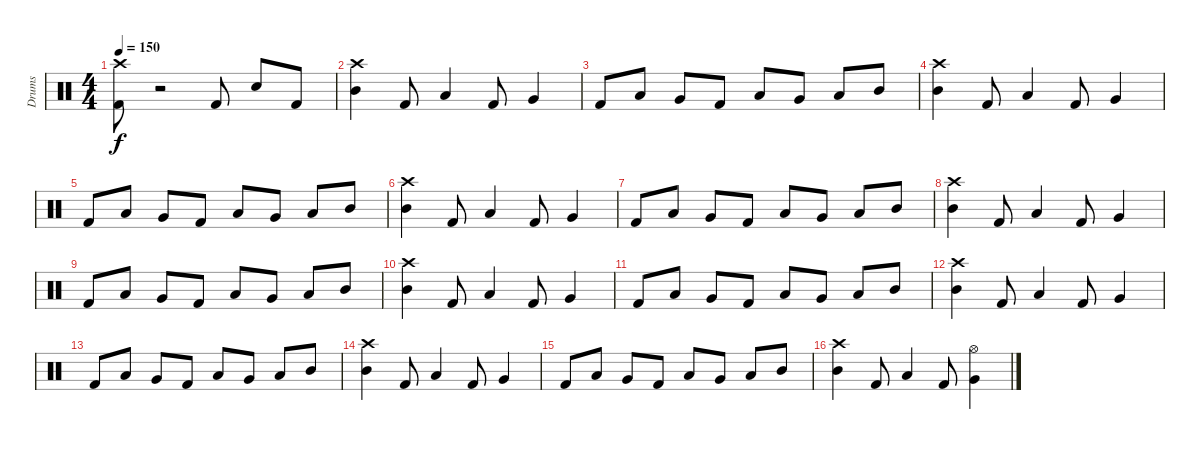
\track ("Drums" "Drums") {instrument percussion}
\staff {score}
\articulation defaults
\ts (4 4)
\tempo 150
\clef neutral
\ks c
("Crash high (hit)" "Kick (hit) 2").8{dy f} r.2 "Kick (hit) 2".8 "Electric Snare (hit)".8 "Kick (hit) 2".8 |
("Crash high (hit)" "Mid Tom (hit)").4 "Kick (hit) 2".8 "Low Tom (hit)".4 "Kick (hit) 2".8 "Very Low Tom (hit)".4 |
"Kick (hit) 2".8 "Low Tom (hit)".8 "Very Low Tom (hit)".8 "Kick (hit) 2".8 "Low Tom (hit)".8 "Very Low Tom (hit)".8 "Low Tom (hit)".8 "Mid Tom (hit)".8 |
("Crash high (hit)" "Mid Tom (hit)").4 "Kick (hit) 2".8 "Low Tom (hit)".4 "Kick (hit) 2".8 "Very Low Tom (hit)".4 |
"Kick (hit) 2".8 "Low Tom (hit)".8 "Very Low Tom (hit)".8 "Kick (hit) 2".8 "Low Tom (hit)".8 "Very Low Tom (hit)".8 "Low Tom (hit)".8 "Mid Tom (hit)".8 |
("Crash high (hit)" "Mid Tom (hit)").4 "Kick (hit) 2".8 "Low Tom (hit)".4 "Kick (hit) 2".8 "Very Low Tom (hit)".4 |
"Kick (hit) 2".8 "Low Tom (hit)".8 "Very Low Tom (hit)".8 "Kick (hit) 2".8 "Low Tom (hit)".8 "Very Low Tom (hit)".8 "Low Tom (hit)".8 "Mid Tom (hit)".8 |
("Crash high (hit)" "Mid Tom (hit)").4 "Kick (hit) 2".8 "Low Tom (hit)".4 "Kick (hit) 2".8 "Very Low Tom (hit)".4 |
"Kick (hit) 2".8 "Low Tom (hit)".8 "Very Low Tom (hit)".8 "Kick (hit) 2".8 "Low Tom (hit)".8 "Very Low Tom (hit)".8 "Low Tom (hit)".8 "Mid Tom (hit)".8 |
("Crash high (hit)" "Mid Tom (hit)").4 "Kick (hit) 2".8 "Low Tom (hit)".4 "Kick (hit) 2".8 "Very Low Tom (hit)".4 |
"Kick (hit) 2".8 "Low Tom (hit)".8 "Very Low Tom (hit)".8 "Kick (hit) 2".8 "Low Tom (hit)".8 "Very Low Tom (hit)".8 "Low Tom (hit)".8 "Mid Tom (hit)".8 |
("Crash high (hit)" "Mid Tom (hit)").4 "Kick (hit) 2".8 "Low Tom (hit)".4 "Kick (hit) 2".8 "Very Low Tom (hit)".4 |
"Kick (hit) 2".8 "Low Tom (hit)".8 "Very Low Tom (hit)".8 "Kick (hit) 2".8 "Low Tom (hit)".8 "Very Low Tom (hit)".8 "Low Tom (hit)".8 "Mid Tom (hit)".8 |
("Crash high (hit)" "Mid Tom (hit)").4 "Kick (hit) 2".8 "Low Tom (hit)".4 "Kick (hit) 2".8 "Very Low Tom (hit)".4 |
"Kick (hit) 2".8 "Low Tom (hit)".8 "Very Low Tom (hit)".8 "Kick (hit) 2".8 "Low Tom (hit)".8 "Very Low Tom (hit)".8 "Low Tom (hit)".8 "Mid Tom (hit)".8 |
("Crash high (hit)" "Mid Tom (hit)").4 "Kick (hit) 2".8 "Low Tom (hit)".4 "Kick (hit) 2".8 ("Hi-Hat (open)" "Very Low Tom (hit)").4
